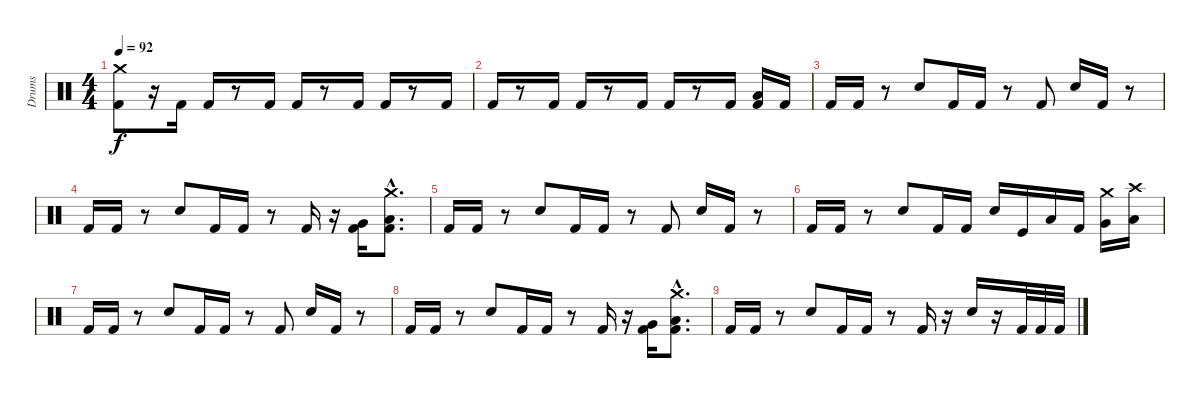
\track ("Drums" "Drums") {instrument percussion}
\staff {score}
\articulation defaults
\ts (4 4)
\tempo 92
\clef neutral
\ks c
("Crash medium (hit)" "Kick (hit) 2").8{dy f} r.16 "Kick (hit) 2".16 "Kick (hit) 2".16 r.8 "Kick (hit) 2".16 "Kick (hit) 2".16 r.8 "Kick (hit) 2".16 "Kick (hit) 2".16 r.8 "Kick (hit) 2".16 |
"Kick (hit) 2".16 r.8 "Kick (hit) 2".16 "Kick (hit) 2".16 r.8 "Kick (hit) 2".16 "Kick (hit) 2".16 r.8 "Kick (hit) 2".16 ("Low Floor Tom (hit)" "Kick (hit) 2").16 "Kick (hit) 2".16 |
"Kick (hit) 2".16 "Kick (hit) 2".16 r.8 "Snare (hit) 2".8 "Kick (hit) 2".16 "Kick (hit) 2".16 r.8 "Kick (hit) 2".8 "Snare (hit) 2".16 "Kick (hit) 2".16 r.8 |
"Kick (hit) 2".16 "Kick (hit) 2".16 r.8 "Snare (hit) 2".8 "Kick (hit) 2".16 "Kick (hit) 2".16 r.8 "Kick (hit) 2".16 r.16 ("Very Low Tom (hit)" "Kick (hit) 2").16 ("Crash medium (hit)"{hac} "Kick (hit) 2"{hac} "Low Floor Tom (hit)"{hac}).8{d} |
"Kick (hit) 2".16 "Kick (hit) 2".16 r.8 "Snare (hit) 2".8 "Kick (hit) 2".16 "Kick (hit) 2".16 r.8 "Kick (hit) 2".8 "Snare (hit) 2".16 "Kick (hit) 2".16 r.8 |
"Kick (hit) 2".16 "Kick (hit) 2".16 r.8 "Snare (hit) 2".8 "Kick (hit) 2".16 "Kick (hit) 2".16 "Snare (hit) 2".16 "Kick (hit)".16 "Low Tom (hit)".16 "Kick (hit) 2".16 ("Crash medium (hit)" "Very Low Tom (hit)").16 ("Crash high (hit)" "Low Floor Tom (hit)").16 |
"Kick (hit) 2".16 "Kick (hit) 2".16 r.8 "Snare (hit) 2".8 "Kick (hit) 2".16 "Kick (hit) 2".16 r.8 "Kick (hit) 2".8 "Snare (hit) 2".16 "Kick (hit) 2".16 r.8 |
"Kick (hit) 2".16 "Kick (hit) 2".16 r.8 "Snare (hit) 2".8 "Kick (hit) 2".16 "Kick (hit) 2".16 r.8 "Kick (hit) 2".16 r.16 ("Very Low Tom (hit)" "Kick (hit) 2").16 ("Crash medium (hit)"{hac} "Kick (hit) 2"{hac} "Low Floor Tom (hit)"{hac}).8{d} |
"Kick (hit) 2".16 "Kick (hit) 2".16 r.8 "Snare (hit) 2".8 "Kick (hit) 2".16 "Kick (hit) 2".16 r.8 "Kick (hit) 2".16 r.16 "Snare (hit) 2".16 r.16 "Kick (hit) 2".32 "Kick (hit) 2".32 "Kick (hit) 2".32
